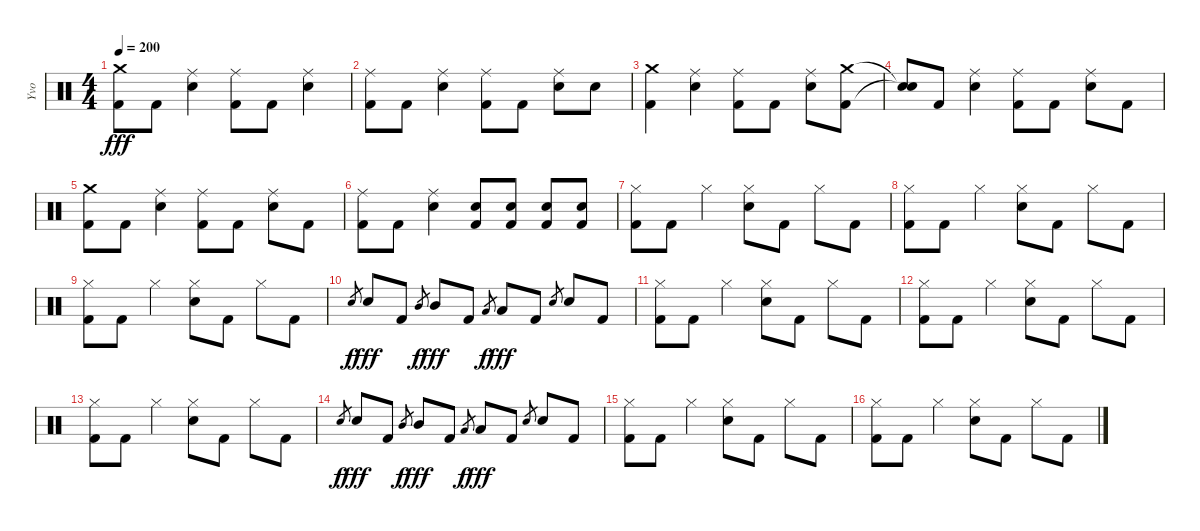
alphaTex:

\track ("Yvo" "Yvo") {instrument percussion}
\staff {score}
\articulation defaults
\ts (4 4)
\tempo 200
\clef neutral
\ks c
("Crash medium (hit)" "Kick (hit) 2").8{dy fff} "Kick (hit) 2".8 ("Ride (middle)" "Electric Snare (hit)").4 ("Ride (middle)" "Kick (hit) 2").8 "Kick (hit) 2".8 ("Ride (middle)" "Electric Snare (hit)").4 |
("Ride (middle)" "Kick (hit) 2").8 "Kick (hit) 2".8 ("Ride (middle)" "Electric Snare (hit)").4 ("Ride (middle)" "Kick (hit) 2").8 "Kick (hit) 2".8 ("Ride (middle)" "Electric Snare (hit)").8 "Electric Snare (hit)".8 |
("Crash medium (hit)" "Kick (hit) 2").4 ("Ride (middle)" "Electric Snare (hit)").4 ("Ride (middle)" "Kick (hit) 2").8 "Kick (hit) 2".8 ("Ride (middle)" "Electric Snare (hit)").8 ("Crash medium (hit)" "Kick (hit) 2").8 |
("Snare (hit)"{t} "Snare (hit)"{t}).8 "Kick (hit) 2".8 ("Ride (middle)" "Electric Snare (hit)").4 ("Ride (middle)" "Kick (hit) 2").8 "Kick (hit) 2".8 ("Ride (middle)" "Electric Snare (hit)").8 "Kick (hit) 2".8 |
("Crash medium (hit)" "Kick (hit) 2").8 "Kick (hit) 2".8 ("Ride (middle)" "Electric Snare (hit)").4 ("Ride (middle)" "Kick (hit) 2").8 "Kick (hit) 2".8 ("Ride (middle)" "Electric Snare (hit)").8 "Kick (hit) 2".8 |
("Ride (middle)" "Kick (hit) 2").8 "Kick (hit) 2".8 ("Ride (middle)" "Electric Snare (hit)").4 ("Electric Snare (hit)" "Kick (hit) 2").8 ("Electric Snare (hit)" "Kick (hit) 2").8 ("Electric Snare (hit)" "Kick (hit) 2").8 ("Electric Snare (hit)" "Kick (hit) 2").8 |
("Hi-Hat (closed)" "Kick (hit) 2").8 "Kick (hit) 2".8 "Hi-Hat (closed)".4 ("Hi-Hat (closed)" "Electric Snare (hit)").8 "Kick (hit) 2".8 "Hi-Hat (closed)".8 "Kick (hit) 2".8 |
("Hi-Hat (closed)" "Kick (hit) 2").8 "Kick (hit) 2".8 "Hi-Hat (closed)".4 ("Hi-Hat (closed)" "Electric Snare (hit)").8 "Kick (hit) 2".8 "Hi-Hat (closed)".8 "Kick (hit) 2".8 |
("Hi-Hat (closed)" "Kick (hit) 2").8 "Kick (hit) 2".8 "Hi-Hat (closed)".4 ("Hi-Hat (closed)" "Electric Snare (hit)").8 "Kick (hit) 2".8 "Hi-Hat (closed)".8 "Kick (hit) 2".8 |
"Electric Snare (hit)".8{gr dy f} "Electric Snare (hit)".8{dy fff} "Kick (hit) 2".8 "Mid Tom (hit)".8{gr dy f} "Mid Tom (hit)".8{dy fff} "Kick (hit) 2".8 "Low Tom (hit)".8{gr dy f} "Low Tom (hit)".8{dy fff} "Kick (hit) 2".8 "Electric Snare (hit)".8{gr} "Electric Snare (hit)".8 "Kick (hit) 2".8 |
("Hi-Hat (closed)" "Kick (hit) 2").8 "Kick (hit) 2".8 "Hi-Hat (closed)".4 ("Hi-Hat (closed)" "Electric Snare (hit)").8 "Kick (hit) 2".8 "Hi-Hat (closed)".8 "Kick (hit) 2".8 |
("Hi-Hat (closed)" "Kick (hit) 2").8 "Kick (hit) 2".8 "Hi-Hat (closed)".4 ("Hi-Hat (closed)" "Electric Snare (hit)").8 "Kick (hit) 2".8 "Hi-Hat (closed)".8 "Kick (hit) 2".8 |
("Hi-Hat (closed)" "Kick (hit) 2").8 "Kick (hit) 2".8 "Hi-Hat (closed)".4 ("Hi-Hat (closed)" "Electric Snare (hit)").8 "Kick (hit) 2".8 "Hi-Hat (closed)".8 "Kick (hit) 2".8 |
"Electric Snare (hit)".8{gr dy f} "Electric Snare (hit)".8{dy fff} "Kick (hit) 2".8 "Mid Tom (hit)".8{gr dy f} "Mid Tom (hit)".8{dy fff} "Kick (hit) 2".8 "Low Tom (hit)".8{gr dy f} "Low Tom (hit)".8{dy fff} "Kick (hit) 2".8 "Electric Snare (hit)".8{gr} "Electric Snare (hit)".8 "Kick (hit) 2".8 |
("Hi-Hat (closed)" "Kick (hit) 2").8 "Kick (hit) 2".8 "Hi-Hat (closed)".4 ("Hi-Hat (closed)" "Electric Snare (hit)").8 "Kick (hit) 2".8 "Hi-Hat (closed)".8 "Kick (hit) 2".8 |
("Hi-Hat (closed)" "Kick (hit) 2").8 "Kick (hit) 2".8 "Hi-Hat (closed)".4 ("Hi-Hat (closed)" "Electric Snare (hit)").8 "Kick (hit) 2".8 "Hi-Hat (closed)".8 "Kick (hit) 2".8
